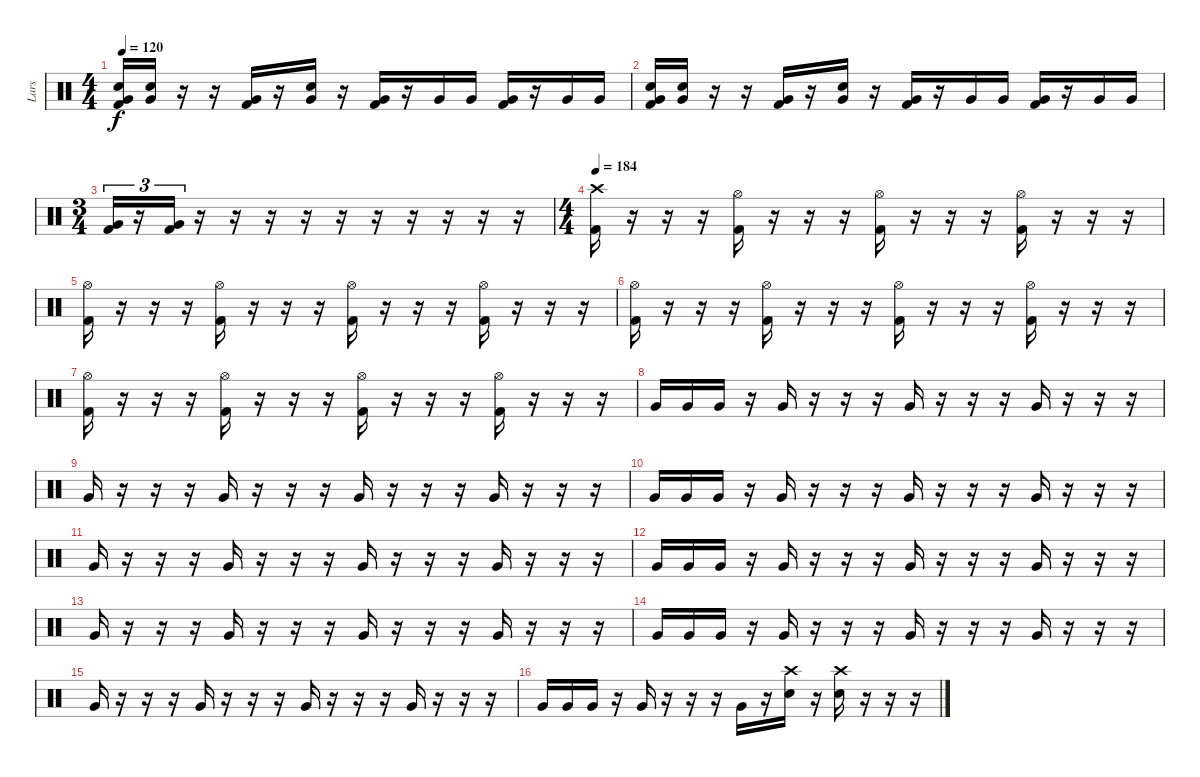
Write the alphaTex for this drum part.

\track ("Lars" "Lars") {instrument percussion}
\staff {score}
\articulation defaults
\ts (4 4)
\tempo 120
\clef neutral
\ks c
("Electric Snare (hit)" "Very Low Tom (hit)" "Kick (hit) 2").16{dy f} ("Electric Snare (hit)" "Very Low Tom (hit)").16 r.16 r.16 ("Very Low Tom (hit)" "Kick (hit) 2").16 r.16 ("Electric Snare (hit)" "Very Low Tom (hit)").16 r.16 ("Very Low Tom (hit)" "Kick (hit) 2").16 r.16 "Very Low Tom (hit)".16 "Very Low Tom (hit)".16 ("Very Low Tom (hit)" "Kick (hit) 2").16 r.16 "Very Low Tom (hit)".16 "Very Low Tom (hit)".16 |
("Electric Snare (hit)" "Very Low Tom (hit)" "Kick (hit) 2").16 ("Electric Snare (hit)" "Very Low Tom (hit)").16 r.16 r.16 ("Very Low Tom (hit)" "Kick (hit) 2").16 r.16 ("Electric Snare (hit)" "Very Low Tom (hit)").16 r.16 ("Very Low Tom (hit)" "Kick (hit) 2").16 r.16 "Very Low Tom (hit)".16 "Very Low Tom (hit)".16 ("Very Low Tom (hit)" "Kick (hit) 2").16 r.16 "Very Low Tom (hit)".16 "Very Low Tom (hit)".16 |
\ts (3 4)
("Very Low Tom (hit)" "Kick (hit) 2").16{tu (3 2)} r.16{tu (3 2)} ("Very Low Tom (hit)" "Kick (hit) 2").16{tu (3 2)} r.16 r.16 r.16 r.16 r.16 r.16 r.16 r.16 r.16 r.16 |
\ts (4 4)
\tempo 184
("Crash high (hit)" "Kick (hit) 2").16 r.16 r.16 r.16 ("Hi-Hat (open)" "Kick (hit) 2").16 r.16 r.16 r.16 ("Hi-Hat (open)" "Kick (hit) 2").16 r.16 r.16 r.16 ("Hi-Hat (open)" "Kick (hit) 2").16 r.16 r.16 r.16 |
("Hi-Hat (open)" "Kick (hit) 2").16 r.16 r.16 r.16 ("Hi-Hat (open)" "Kick (hit) 2").16 r.16 r.16 r.16 ("Hi-Hat (open)" "Kick (hit) 2").16 r.16 r.16 r.16 ("Hi-Hat (open)" "Kick (hit) 2").16 r.16 r.16 r.16 |
("Hi-Hat (open)" "Kick (hit) 2").16 r.16 r.16 r.16 ("Hi-Hat (open)" "Kick (hit) 2").16 r.16 r.16 r.16 ("Hi-Hat (open)" "Kick (hit) 2").16 r.16 r.16 r.16 ("Hi-Hat (open)" "Kick (hit) 2").16 r.16 r.16 r.16 |
("Hi-Hat (open)" "Kick (hit) 2").16 r.16 r.16 r.16 ("Hi-Hat (open)" "Kick (hit) 2").16 r.16 r.16 r.16 ("Hi-Hat (open)" "Kick (hit) 2").16 r.16 r.16 r.16 ("Hi-Hat (open)" "Kick (hit) 2").16 r.16 r.16 r.16 |
"Very Low Tom (hit)".16 "Very Low Tom (hit)".16 "Very Low Tom (hit)".16 r.16 "Very Low Tom (hit)".16 r.16 r.16 r.16 "Very Low Tom (hit)".16 r.16 r.16 r.16 "Very Low Tom (hit)".16 r.16 r.16 r.16 |
"Very Low Tom (hit)".16 r.16 r.16 r.16 "Very Low Tom (hit)".16 r.16 r.16 r.16 "Very Low Tom (hit)".16 r.16 r.16 r.16 "Very Low Tom (hit)".16 r.16 r.16 r.16 |
"Very Low Tom (hit)".16 "Very Low Tom (hit)".16 "Very Low Tom (hit)".16 r.16 "Very Low Tom (hit)".16 r.16 r.16 r.16 "Very Low Tom (hit)".16 r.16 r.16 r.16 "Very Low Tom (hit)".16 r.16 r.16 r.16 |
"Very Low Tom (hit)".16 r.16 r.16 r.16 "Very Low Tom (hit)".16 r.16 r.16 r.16 "Very Low Tom (hit)".16 r.16 r.16 r.16 "Very Low Tom (hit)".16 r.16 r.16 r.16 |
"Very Low Tom (hit)".16 "Very Low Tom (hit)".16 "Very Low Tom (hit)".16 r.16 "Very Low Tom (hit)".16 r.16 r.16 r.16 "Very Low Tom (hit)".16 r.16 r.16 r.16 "Very Low Tom (hit)".16 r.16 r.16 r.16 |
"Very Low Tom (hit)".16 r.16 r.16 r.16 "Very Low Tom (hit)".16 r.16 r.16 r.16 "Very Low Tom (hit)".16 r.16 r.16 r.16 "Very Low Tom (hit)".16 r.16 r.16 r.16 |
"Very Low Tom (hit)".16 "Very Low Tom (hit)".16 "Very Low Tom (hit)".16 r.16 "Very Low Tom (hit)".16 r.16 r.16 r.16 "Very Low Tom (hit)".16 r.16 r.16 r.16 "Very Low Tom (hit)".16 r.16 r.16 r.16 |
"Very Low Tom (hit)".16 r.16 r.16 r.16 "Very Low Tom (hit)".16 r.16 r.16 r.16 "Very Low Tom (hit)".16 r.16 r.16 r.16 "Very Low Tom (hit)".16 r.16 r.16 r.16 |
"Very Low Tom (hit)".16 "Very Low Tom (hit)".16 "Very Low Tom (hit)".16 r.16 "Very Low Tom (hit)".16 r.16 r.16 r.16 "Very Low Tom (hit)".16 r.16 ("Crash high (hit)" "Electric Snare (hit)").16 r.16 ("Crash high (hit)" "Electric Snare (hit)").16 r.16 r.16 r.16
